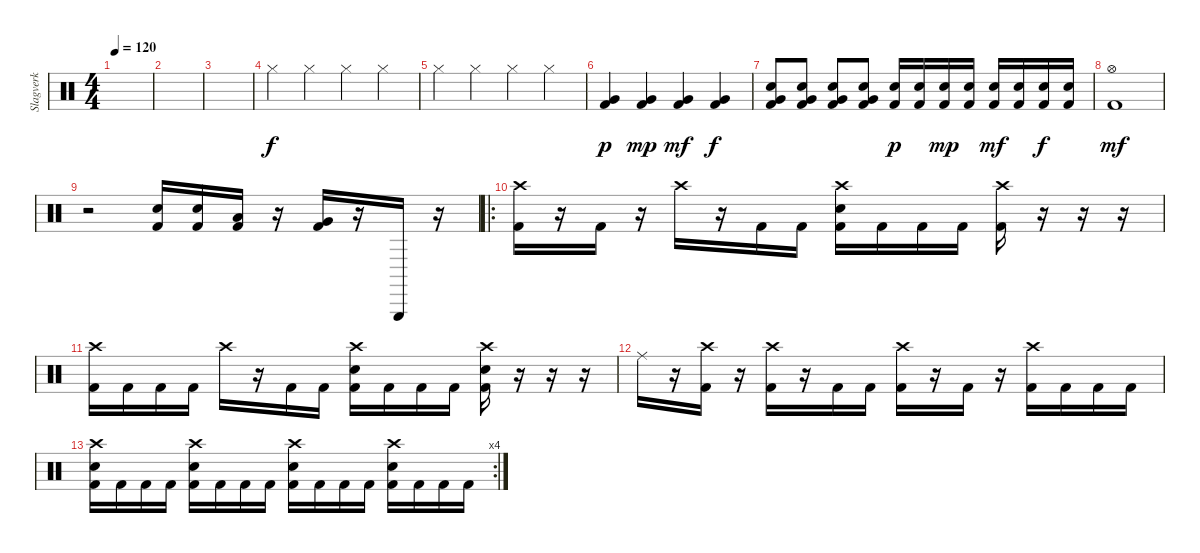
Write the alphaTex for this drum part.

\track ("Slagverk" "Slagverk") {instrument percussion}
\staff {score}
\articulation defaults
\ts (4 4)
\tempo 120
\clef neutral
\ks c
|
|
|
"Hi-Hat (closed)".4 "Hi-Hat (closed)".4 "Hi-Hat (closed)".4 "Hi-Hat (closed)".4 |
"Hi-Hat (closed)".4 "Hi-Hat (closed)".4 "Hi-Hat (closed)".4 "Hi-Hat (closed)".4 |
("Kick (hit) 2" "Very Low Tom (hit)").4{dy p} ("Kick (hit) 2" "Very Low Tom (hit)").4{dy mp} ("Kick (hit) 2" "Very Low Tom (hit)").4{dy mf} ("Kick (hit) 2" "Very Low Tom (hit)").4{dy f} |
("Kick (hit) 2" "Snare (hit) 2" "Very Low Tom (hit)").8 ("Kick (hit) 2" "Snare (hit) 2" "Very Low Tom (hit)").8 ("Kick (hit) 2" "Snare (hit) 2" "Very Low Tom (hit)").8 ("Kick (hit) 2" "Snare (hit) 2" "Very Low Tom (hit)").8 ("Kick (hit) 2" "Snare (hit) 2").16{dy p} ("Kick (hit) 2" "Snare (hit) 2").16 ("Kick (hit) 2" "Snare (hit) 2").16{dy mp} ("Kick (hit) 2" "Snare (hit) 2").16 ("Kick (hit) 2" "Snare (hit) 2").16{dy mf} ("Kick (hit) 2" "Snare (hit) 2").16 ("Kick (hit) 2" "Snare (hit) 2").16{dy f} ("Kick (hit) 2" "Snare (hit) 2").16 |
("Kick (hit) 2" "Hi-Hat (open)").1{dy mf} |
r.2 ("Kick (hit) 2" "Snare (hit) 2").16 ("Kick (hit) 2" "Snare (hit) 2").16 ("Kick (hit) 2" "Low Tom (hit)").16 r.16 ("Kick (hit) 2" "Very Low Tom (hit)").16 r.16 "Triangle (hit)".16 r.16 |
\ro
("Kick (hit) 2" "Crash high (hit)").16 r.16 "Kick (hit) 2".16 r.16 "Crash high (hit)".16 r.16 "Kick (hit) 2".16 "Kick (hit) 2".16 ("Kick (hit) 2" "Snare (hit) 2" "Crash high (hit)").16 "Kick (hit) 2".16 "Kick (hit) 2".16 "Kick (hit) 2".16 ("Kick (hit) 2" "Crash high (hit)").16 r.16 r.16 r.16 |
("Kick (hit) 2" "Crash high (hit)").16 "Kick (hit) 2".16 "Kick (hit) 2".16 "Kick (hit) 2".16 "Crash high (hit)".16 r.16 "Kick (hit) 2".16 "Kick (hit) 2".16 ("Kick (hit) 2" "Snare (hit) 2" "Crash high (hit)").16 "Kick (hit) 2".16 "Kick (hit) 2".16 "Kick (hit) 2".16 ("Kick (hit) 2" "Snare (hit) 2" "Crash high (hit)").16 r.16 r.16 r.16 |
"Ride (middle)".16 r.16 ("Kick (hit) 2" "Crash high (hit)").16 r.16 ("Kick (hit) 2" "Crash high (hit)").16 r.16 "Kick (hit) 2".16 "Kick (hit) 2".16 ("Kick (hit) 2" "Crash high (hit)").16 r.16 "Kick (hit) 2".16 r.16 ("Kick (hit) 2" "Crash high (hit)").16 "Kick (hit) 2".16 "Kick (hit) 2".16 "Kick (hit) 2".16 |
\rc 4
("Kick (hit) 2" "Snare (hit) 2" "Crash high (hit)").16 "Kick (hit) 2".16 "Kick (hit) 2".16 "Kick (hit) 2".16 ("Kick (hit) 2" "Snare (hit) 2" "Crash high (hit)").16 "Kick (hit) 2".16 "Kick (hit) 2".16 "Kick (hit) 2".16 ("Kick (hit) 2" "Snare (hit) 2" "Crash high (hit)").16 "Kick (hit) 2".16 "Kick (hit) 2".16 "Kick (hit) 2".16 ("Kick (hit) 2" "Snare (hit) 2" "Crash high (hit)").16 "Kick (hit) 2".16 "Kick (hit) 2".16 "Kick (hit) 2".16
